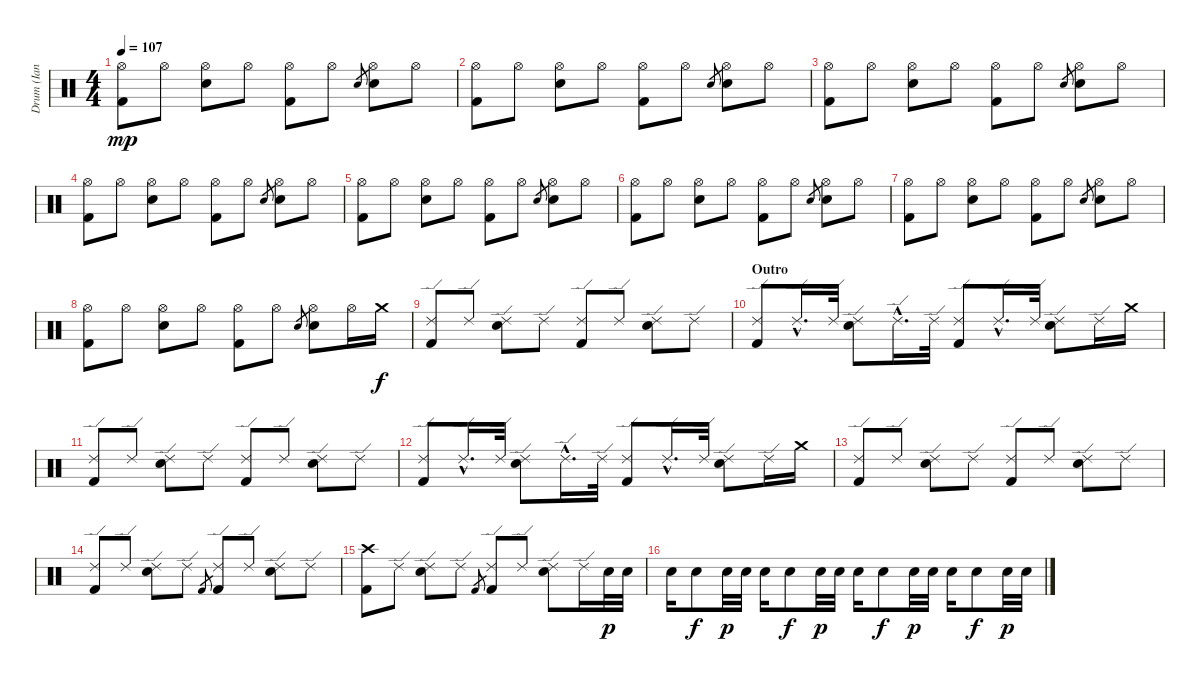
\track ("Drum (Ian Paice)" "Drum (Ian ") {instrument percussion}
\staff {score}
\articulation defaults
\ts (4 4)
\tempo 107
\clef neutral
\ks c
("Hi-Hat (open)" "Kick (hit) 2").8{dy mp} "Hi-Hat (open)".8 ("Hi-Hat (open)" "Snare (hit) 2").8 "Hi-Hat (open)".8 ("Hi-Hat (open)" "Kick (hit) 2").8 "Hi-Hat (open)".8 "Snare (hit) 2".8{gr} ("Hi-Hat (open)" "Snare (hit) 2").8 "Hi-Hat (open)".8 |
("Hi-Hat (open)" "Kick (hit) 2").8 "Hi-Hat (open)".8 ("Hi-Hat (open)" "Snare (hit) 2").8 "Hi-Hat (open)".8 ("Hi-Hat (open)" "Kick (hit) 2").8 "Hi-Hat (open)".8 "Snare (hit) 2".8{gr} ("Hi-Hat (open)" "Snare (hit) 2").8 "Hi-Hat (open)".8 |
("Hi-Hat (open)" "Kick (hit) 2").8 "Hi-Hat (open)".8 ("Hi-Hat (open)" "Snare (hit) 2").8 "Hi-Hat (open)".8 ("Hi-Hat (open)" "Kick (hit) 2").8 "Hi-Hat (open)".8 "Snare (hit) 2".8{gr} ("Hi-Hat (open)" "Snare (hit) 2").8 "Hi-Hat (open)".8 |
("Hi-Hat (open)" "Kick (hit) 2").8 "Hi-Hat (open)".8 ("Hi-Hat (open)" "Snare (hit) 2").8 "Hi-Hat (open)".8 ("Hi-Hat (open)" "Kick (hit) 2").8 "Hi-Hat (open)".8 "Snare (hit) 2".8{gr} ("Hi-Hat (open)" "Snare (hit) 2").8 "Hi-Hat (open)".8 |
("Hi-Hat (open)" "Kick (hit) 2").8 "Hi-Hat (open)".8 ("Hi-Hat (open)" "Snare (hit) 2").8 "Hi-Hat (open)".8 ("Hi-Hat (open)" "Kick (hit) 2").8 "Hi-Hat (open)".8 "Snare (hit) 2".8{gr} ("Hi-Hat (open)" "Snare (hit) 2").8 "Hi-Hat (open)".8 |
("Hi-Hat (open)" "Kick (hit) 2").8 "Hi-Hat (open)".8 ("Hi-Hat (open)" "Snare (hit) 2").8 "Hi-Hat (open)".8 ("Hi-Hat (open)" "Kick (hit) 2").8 "Hi-Hat (open)".8 "Snare (hit) 2".8{gr} ("Hi-Hat (open)" "Snare (hit) 2").8 "Hi-Hat (open)".8 |
("Hi-Hat (open)" "Kick (hit) 2").8 "Hi-Hat (open)".8 ("Hi-Hat (open)" "Snare (hit) 2").8 "Hi-Hat (open)".8 ("Hi-Hat (open)" "Kick (hit) 2").8 "Hi-Hat (open)".8 "Snare (hit) 2".8{gr} ("Hi-Hat (open)" "Snare (hit) 2").8 "Hi-Hat (open)".8 |
("Hi-Hat (open)" "Kick (hit) 2").8 "Hi-Hat (open)".8 ("Hi-Hat (open)" "Snare (hit) 2").8 "Hi-Hat (open)".8 ("Hi-Hat (open)" "Kick (hit) 2").8 "Hi-Hat (open)".8 "Snare (hit) 2".8{gr} ("Hi-Hat (open)" "Snare (hit) 2").8 "Hi-Hat (open)".16 "Crash medium (hit)".16{dy f} |
("Ride (edge) 2" "Kick (hit) 2").8 "Ride (edge) 2".8 ("Ride (edge) 2" "Snare (hit) 2").8 "Ride (edge) 2".8 ("Ride (edge) 2" "Kick (hit) 2").8 "Ride (edge) 2".8 ("Ride (edge) 2" "Snare (hit) 2").8 "Ride (edge) 2".8 |
\section ("" "Outro")
("Ride (edge) 2" "Kick (hit) 2").8 "Ride (edge) 2"{hac}.16{d} "Ride (edge) 2".32 ("Ride (edge) 2" "Snare (hit) 2").8 "Ride (edge) 2"{hac}.16{d} "Ride (edge) 2".32 ("Ride (edge) 2" "Kick (hit) 2").8 "Ride (edge) 2"{hac}.16{d} "Ride (edge) 2".32 ("Ride (edge) 2" "Snare (hit) 2").8 "Ride (edge) 2".16 "Crash medium (hit)".16 |
("Ride (edge) 2" "Kick (hit) 2").8 "Ride (edge) 2".8 ("Ride (edge) 2" "Snare (hit) 2").8 "Ride (edge) 2".8 ("Ride (edge) 2" "Kick (hit) 2").8 "Ride (edge) 2".8 ("Ride (edge) 2" "Snare (hit) 2").8 "Ride (edge) 2".8 |
("Ride (edge) 2" "Kick (hit) 2").8 "Ride (edge) 2"{hac}.16{d} "Ride (edge) 2".32 ("Ride (edge) 2" "Snare (hit) 2").8 "Ride (edge) 2"{hac}.16{d} "Ride (edge) 2".32 ("Ride (edge) 2" "Kick (hit) 2").8 "Ride (edge) 2"{hac}.16{d} "Ride (edge) 2".32 ("Ride (edge) 2" "Snare (hit) 2").8 "Ride (edge) 2".16 "Crash medium (hit)".16 |
("Ride (edge) 2" "Kick (hit) 2").8 "Ride (edge) 2".8 ("Ride (edge) 2" "Snare (hit) 2").8 "Ride (edge) 2".8 ("Ride (edge) 2" "Kick (hit) 2").8 "Ride (edge) 2".8 ("Ride (edge) 2" "Snare (hit) 2").8 "Ride (edge) 2".8 |
("Ride (edge) 2" "Kick (hit) 2").8 "Ride (edge) 2".8 ("Ride (edge) 2" "Snare (hit) 2").8 "Ride (edge) 2".8 "Kick (hit) 2".8{gr} ("Ride (edge) 2" "Kick (hit) 2").8 "Ride (edge) 2".8 ("Ride (edge) 2" "Snare (hit) 2").8 "Ride (edge) 2".8 |
("Crash high (hit)" "Kick (hit) 2").8 "Ride (edge) 2".8 ("Ride (edge) 2" "Snare (hit) 2").8 "Ride (edge) 2".8 "Kick (hit) 2".8{gr} ("Ride (edge) 2" "Kick (hit) 2").8 "Ride (edge) 2".8 ("Ride (edge) 2" "Snare (hit) 2").8 "Ride (edge) 2".16 "Snare (hit) 2".32{dy p} "Snare (hit) 2".32 |
"Snare (hit) 2".16 "Snare (hit) 2".8{dy f} "Snare (hit) 2".32{dy p} "Snare (hit) 2".32 "Snare (hit) 2".16 "Snare (hit) 2".8{dy f} "Snare (hit) 2".32{dy p} "Snare (hit) 2".32 "Snare (hit) 2".16 "Snare (hit) 2".8{dy f} "Snare (hit) 2".32{dy p} "Snare (hit) 2".32 "Snare (hit) 2".16 "Snare (hit) 2".8{dy f} "Snare (hit) 2".32{dy p} "Snare (hit) 2".32
